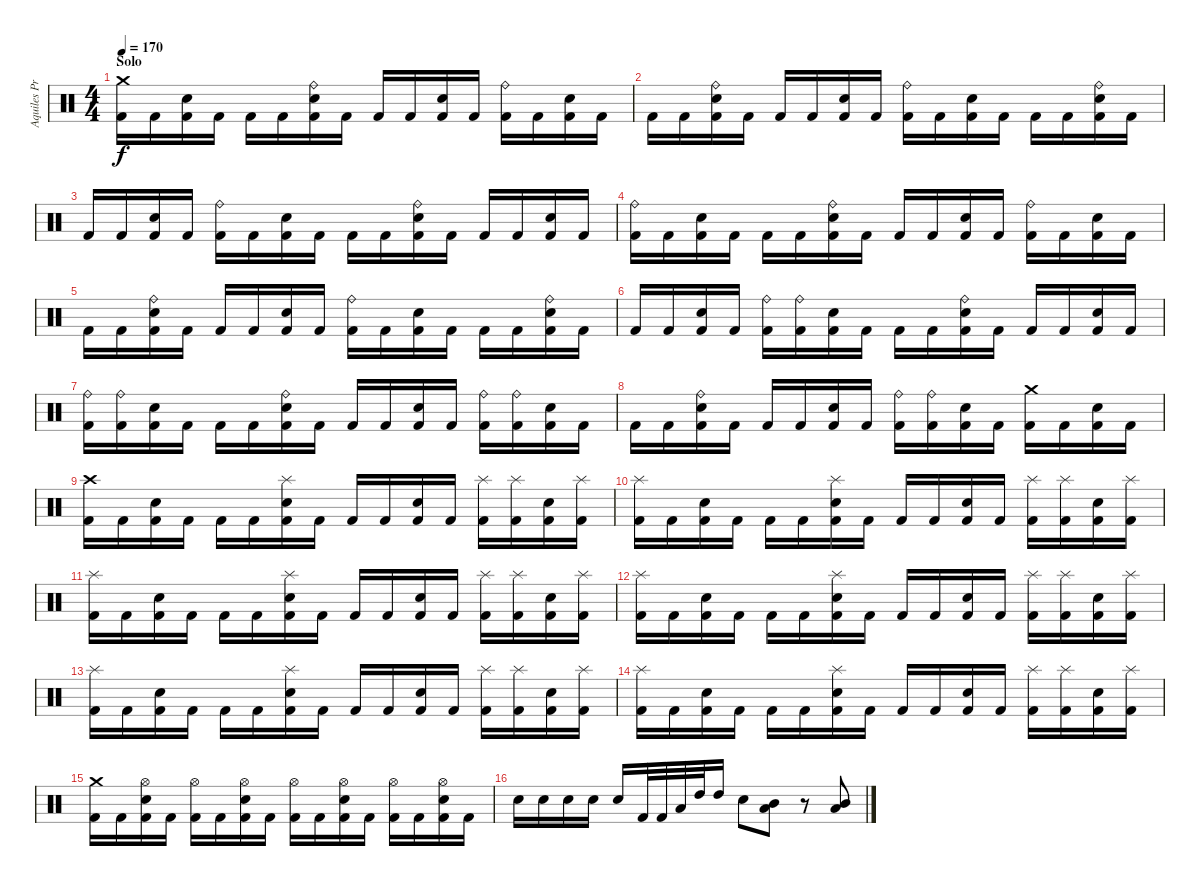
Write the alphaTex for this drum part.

\track ("Aquiles Priester" "Aquiles Pr") {instrument percussion}
\staff {score}
\articulation defaults
\ts (4 4)
\section ("" "Solo")
\tempo 170
\clef neutral
\ks c
("Crash medium (hit)" "Kick (hit) 2").16{dy f} "Kick (hit) 2".16 ("Electric Snare (hit)" "Kick (hit) 2").16 "Kick (hit) 2".16 "Kick (hit) 2".16 "Kick (hit) 2".16 ("Ride (bell)" "Electric Snare (hit)" "Kick (hit) 2").16 "Kick (hit) 2".16 "Kick (hit) 2".16 "Kick (hit) 2".16 ("Electric Snare (hit)" "Kick (hit) 2").16 "Kick (hit) 2".16 ("Ride (bell)" "Kick (hit) 2").16 "Kick (hit) 2".16 ("Electric Snare (hit)" "Kick (hit) 2").16 "Kick (hit) 2".16 |
"Kick (hit) 2".16 "Kick (hit) 2".16 ("Ride (bell)" "Electric Snare (hit)" "Kick (hit) 2").16 "Kick (hit) 2".16 "Kick (hit) 2".16 "Kick (hit) 2".16 ("Electric Snare (hit)" "Kick (hit) 2").16 "Kick (hit) 2".16 ("Ride (bell)" "Kick (hit) 2").16 "Kick (hit) 2".16 ("Electric Snare (hit)" "Kick (hit) 2").16 "Kick (hit) 2".16 "Kick (hit) 2".16 "Kick (hit) 2".16 ("Electric Snare (hit)" "Ride (bell)" "Kick (hit) 2").16 "Kick (hit) 2".16 |
"Kick (hit) 2".16 "Kick (hit) 2".16 ("Electric Snare (hit)" "Kick (hit) 2").16 "Kick (hit) 2".16 ("Ride (bell)" "Kick (hit) 2").16 "Kick (hit) 2".16 ("Electric Snare (hit)" "Kick (hit) 2").16 "Kick (hit) 2".16 "Kick (hit) 2".16 "Kick (hit) 2".16 ("Ride (bell)" "Electric Snare (hit)" "Kick (hit) 2").16 "Kick (hit) 2".16 "Kick (hit) 2".16 "Kick (hit) 2".16 ("Electric Snare (hit)" "Kick (hit) 2").16 "Kick (hit) 2".16 |
("Ride (bell)" "Kick (hit) 2").16 "Kick (hit) 2".16 ("Electric Snare (hit)" "Kick (hit) 2").16 "Kick (hit) 2".16 "Kick (hit) 2".16 "Kick (hit) 2".16 ("Ride (bell)" "Electric Snare (hit)" "Kick (hit) 2").16 "Kick (hit) 2".16 "Kick (hit) 2".16 "Kick (hit) 2".16 ("Electric Snare (hit)" "Kick (hit) 2").16 "Kick (hit) 2".16 ("Ride (bell)" "Kick (hit) 2").16 "Kick (hit) 2".16 ("Electric Snare (hit)" "Kick (hit) 2").16 "Kick (hit) 2".16 |
"Kick (hit) 2".16 "Kick (hit) 2".16 ("Ride (bell)" "Electric Snare (hit)" "Kick (hit) 2").16 "Kick (hit) 2".16 "Kick (hit) 2".16 "Kick (hit) 2".16 ("Electric Snare (hit)" "Kick (hit) 2").16 "Kick (hit) 2".16 ("Ride (bell)" "Kick (hit) 2").16 "Kick (hit) 2".16 ("Electric Snare (hit)" "Kick (hit) 2").16 "Kick (hit) 2".16 "Kick (hit) 2".16 "Kick (hit) 2".16 ("Electric Snare (hit)" "Ride (bell)" "Kick (hit) 2").16 "Kick (hit) 2".16 |
"Kick (hit) 2".16 "Kick (hit) 2".16 ("Electric Snare (hit)" "Kick (hit) 2").16 "Kick (hit) 2".16 ("Ride (bell)" "Kick (hit) 2").16 ("Ride (bell)" "Kick (hit) 2").16 ("Electric Snare (hit)" "Kick (hit) 2").16 "Kick (hit) 2".16 "Kick (hit) 2".16 "Kick (hit) 2".16 ("Ride (bell)" "Electric Snare (hit)" "Kick (hit) 2").16 "Kick (hit) 2".16 "Kick (hit) 2".16 "Kick (hit) 2".16 ("Electric Snare (hit)" "Kick (hit) 2").16 "Kick (hit) 2".16 |
("Ride (bell)" "Kick (hit) 2").16 ("Ride (bell)" "Kick (hit) 2").16 ("Electric Snare (hit)" "Kick (hit) 2").16 "Kick (hit) 2".16 "Kick (hit) 2".16 "Kick (hit) 2".16 ("Ride (bell)" "Electric Snare (hit)" "Kick (hit) 2").16 "Kick (hit) 2".16 "Kick (hit) 2".16 "Kick (hit) 2".16 ("Electric Snare (hit)" "Kick (hit) 2").16 "Kick (hit) 2".16 ("Ride (bell)" "Kick (hit) 2").16 ("Ride (bell)" "Kick (hit) 2").16 ("Electric Snare (hit)" "Kick (hit) 2").16 "Kick (hit) 2".16 |
"Kick (hit) 2".16 "Kick (hit) 2".16 ("Ride (bell)" "Electric Snare (hit)" "Kick (hit) 2").16 "Kick (hit) 2".16 "Kick (hit) 2".16 "Kick (hit) 2".16 ("Electric Snare (hit)" "Kick (hit) 2").16 "Kick (hit) 2".16 ("Ride (bell)" "Kick (hit) 2").16 ("Ride (bell)" "Kick (hit) 2").16 ("Electric Snare (hit)" "Kick (hit) 2").16 "Kick (hit) 2".16 ("Crash medium (hit)" "Kick (hit) 2").16 "Kick (hit) 2".16 ("Electric Snare (hit)" "Kick (hit) 2").16 "Kick (hit) 2".16 |
("Crash high (hit)" "Kick (hit) 2").16 "Kick (hit) 2".16 ("Electric Snare (hit)" "Kick (hit) 2").16 "Kick (hit) 2".16 "Kick (hit) 2".16 "Kick (hit) 2".16 ("Splash (hit)" "Electric Snare (hit)" "Kick (hit) 2").16 "Kick (hit) 2".16 "Kick (hit) 2".16 "Kick (hit) 2".16 ("Electric Snare (hit)" "Kick (hit) 2").16 "Kick (hit) 2".16 ("Splash (hit)" "Kick (hit) 2").16 ("Splash (hit)" "Kick (hit) 2").16 ("Electric Snare (hit)" "Kick (hit) 2").16 ("Splash (hit)" "Kick (hit) 2").16 |
("Splash (hit)" "Kick (hit) 2").16 "Kick (hit) 2".16 ("Electric Snare (hit)" "Kick (hit) 2").16 "Kick (hit) 2".16 "Kick (hit) 2".16 "Kick (hit) 2".16 ("Splash (hit)" "Electric Snare (hit)" "Kick (hit) 2").16 "Kick (hit) 2".16 "Kick (hit) 2".16 "Kick (hit) 2".16 ("Electric Snare (hit)" "Kick (hit) 2").16 "Kick (hit) 2".16 ("Splash (hit)" "Kick (hit) 2").16 ("Splash (hit)" "Kick (hit) 2").16 ("Electric Snare (hit)" "Kick (hit) 2").16 ("Splash (hit)" "Kick (hit) 2").16 |
("Splash (hit)" "Kick (hit) 2").16 "Kick (hit) 2".16 ("Electric Snare (hit)" "Kick (hit) 2").16 "Kick (hit) 2".16 "Kick (hit) 2".16 "Kick (hit) 2".16 ("Splash (hit)" "Electric Snare (hit)" "Kick (hit) 2").16 "Kick (hit) 2".16 "Kick (hit) 2".16 "Kick (hit) 2".16 ("Electric Snare (hit)" "Kick (hit) 2").16 "Kick (hit) 2".16 ("Splash (hit)" "Kick (hit) 2").16 ("Splash (hit)" "Kick (hit) 2").16 ("Electric Snare (hit)" "Kick (hit) 2").16 ("Splash (hit)" "Kick (hit) 2").16 |
("Splash (hit)" "Kick (hit) 2").16 "Kick (hit) 2".16 ("Electric Snare (hit)" "Kick (hit) 2").16 "Kick (hit) 2".16 "Kick (hit) 2".16 "Kick (hit) 2".16 ("Splash (hit)" "Electric Snare (hit)" "Kick (hit) 2").16 "Kick (hit) 2".16 "Kick (hit) 2".16 "Kick (hit) 2".16 ("Electric Snare (hit)" "Kick (hit) 2").16 "Kick (hit) 2".16 ("Splash (hit)" "Kick (hit) 2").16 ("Splash (hit)" "Kick (hit) 2").16 ("Electric Snare (hit)" "Kick (hit) 2").16 ("Splash (hit)" "Kick (hit) 2").16 |
("Splash (hit)" "Kick (hit) 2").16 "Kick (hit) 2".16 ("Electric Snare (hit)" "Kick (hit) 2").16 "Kick (hit) 2".16 "Kick (hit) 2".16 "Kick (hit) 2".16 ("Splash (hit)" "Electric Snare (hit)" "Kick (hit) 2").16 "Kick (hit) 2".16 "Kick (hit) 2".16 "Kick (hit) 2".16 ("Electric Snare (hit)" "Kick (hit) 2").16 "Kick (hit) 2".16 ("Splash (hit)" "Kick (hit) 2").16 ("Splash (hit)" "Kick (hit) 2").16 ("Electric Snare (hit)" "Kick (hit) 2").16 ("Splash (hit)" "Kick (hit) 2").16 |
("Splash (hit)" "Kick (hit) 2").16 "Kick (hit) 2".16 ("Electric Snare (hit)" "Kick (hit) 2").16 "Kick (hit) 2".16 "Kick (hit) 2".16 "Kick (hit) 2".16 ("Splash (hit)" "Electric Snare (hit)" "Kick (hit) 2").16 "Kick (hit) 2".16 "Kick (hit) 2".16 "Kick (hit) 2".16 ("Electric Snare (hit)" "Kick (hit) 2").16 "Kick (hit) 2".16 ("Splash (hit)" "Kick (hit) 2").16 ("Splash (hit)" "Kick (hit) 2").16 ("Electric Snare (hit)" "Kick (hit) 2").16 ("Splash (hit)" "Kick (hit) 2").16 |
("Crash medium (hit)" "Kick (hit) 2").16 "Kick (hit) 2".16 ("Hi-Hat (open)" "Electric Snare (hit)" "Kick (hit) 2").16 "Kick (hit) 2".16 ("Hi-Hat (open)" "Kick (hit) 2").16 "Kick (hit) 2".16 ("Hi-Hat (open)" "Electric Snare (hit)" "Kick (hit) 2").16 "Kick (hit) 2".16 ("Hi-Hat (open)" "Kick (hit) 2").16 "Kick (hit) 2".16 ("Hi-Hat (open)" "Electric Snare (hit)" "Kick (hit) 2").16 "Kick (hit) 2".16 ("Hi-Hat (open)" "Kick (hit) 2").16 "Kick (hit) 2".16 ("Electric Snare (hit)" "Hi-Hat (open)" "Kick (hit) 2").16 "Kick (hit) 2".16 |
"Electric Snare (hit)".16 "Electric Snare (hit)".16 "Electric Snare (hit)".16 "Electric Snare (hit)".16 "Electric Snare (hit)".16 "Kick (hit) 2".32 "Kick (hit) 2".32 "Low Tom (hit)".32 "High Tom (hit)".32 "High Tom (hit)".16 "Electric Snare (hit)".8 ("Mid Tom (hit)" "Low Tom (hit)").8 r.8 ("Mid Tom (hit)" "Low Tom (hit)").8
